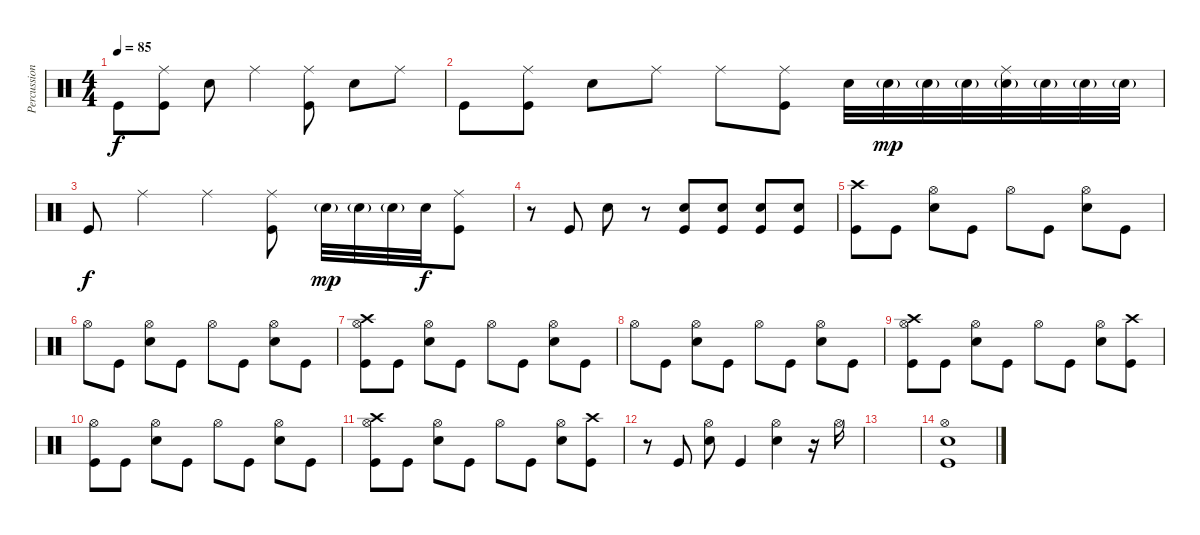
\track ("Percussions" "Percussion") {instrument percussion}
\staff {score}
\articulation defaults
\ts (4 4)
\tempo 85
\clef neutral
\ks c "Kick (hit)".8{dy f}
("Ride (middle)" "Kick (hit)").8 "Snare (hit) 2".8 "Ride (middle)".4 ("Ride (middle)" "Kick (hit)").8 "Snare (hit) 2".8 "Ride (middle)".8 |
"Kick (hit)".8 ("Ride (middle)" "Kick (hit)").8 "Snare (hit) 2".8 "Ride (middle)".8 "Ride (middle)".8 ("Ride (middle)" "Kick (hit)").8 "Snare (hit) 2".32 "Snare (hit) 2"{g}.32{dy mp} "Snare (hit) 2"{g}.32 "Snare (hit) 2"{g}.32 ("Ride (middle)" "Snare (hit) 2"{g}).32 "Snare (hit) 2"{g}.32 "Snare (hit) 2"{g}.32 "Snare (hit) 2"{g}.32 |
"Kick (hit)".8{dy f} "Ride (middle)".4 "Ride (middle)".4 ("Ride (middle)" "Kick (hit)").8 "Snare (hit) 2"{g}.32{dy mp} "Snare (hit) 2"{g}.32 "Snare (hit) 2"{g}.32 "Snare (hit) 2".32{dy f} ("Ride (middle)" "Kick (hit)").8 |
r.8 "Kick (hit)".8 "Snare (hit) 2".8 r.8{volume 5} ("Kick (hit)" "Snare (hit) 2").8{volume 15} ("Kick (hit)" "Snare (hit) 2").8 ("Kick (hit)" "Snare (hit) 2").8 ("Kick (hit)" "Snare (hit) 2").8 |
("Kick (hit)" "Crash high (hit)").8{volume 13} "Kick (hit)".8 ("Hi-Hat (open)" "Snare (hit) 2").8 "Kick (hit)".8 "Hi-Hat (open)".8 "Kick (hit)".8 ("Hi-Hat (open)" "Snare (hit) 2").8 "Kick (hit)".8 |
"Hi-Hat (open)".8 "Kick (hit)".8 ("Hi-Hat (open)" "Snare (hit) 2").8 "Kick (hit)".8 "Hi-Hat (open)".8 "Kick (hit)".8 ("Hi-Hat (open)" "Snare (hit) 2").8 "Kick (hit)".8 |
("Hi-Hat (open)" "Kick (hit)" "Crash high (hit)").8 "Kick (hit)".8 ("Hi-Hat (open)" "Snare (hit) 2").8 "Kick (hit)".8 "Hi-Hat (open)".8 "Kick (hit)".8 ("Hi-Hat (open)" "Snare (hit) 2").8 "Kick (hit)".8 |
"Hi-Hat (open)".8 "Kick (hit)".8 ("Hi-Hat (open)" "Snare (hit) 2").8 "Kick (hit)".8 "Hi-Hat (open)".8 "Kick (hit)".8 ("Hi-Hat (open)" "Snare (hit) 2").8 "Kick (hit)".8 |
("Hi-Hat (open)" "Kick (hit)" "Crash high (hit)").8 "Kick (hit)".8 ("Hi-Hat (open)" "Snare (hit) 2").8 "Kick (hit)".8 "Hi-Hat (open)".8 "Kick (hit)".8 ("Hi-Hat (open)" "Snare (hit) 2").8 ("Kick (hit)" "Crash high (hit)").8 |
("Hi-Hat (open)" "Kick (hit)").8 "Kick (hit)".8 ("Hi-Hat (open)" "Snare (hit) 2").8 "Kick (hit)".8 "Hi-Hat (open)".8 "Kick (hit)".8 ("Hi-Hat (open)" "Snare (hit) 2").8 "Kick (hit)".8 |
("Hi-Hat (open)" "Kick (hit)" "Crash high (hit)").8 "Kick (hit)".8 ("Hi-Hat (open)" "Snare (hit) 2").8 "Kick (hit)".8 "Hi-Hat (open)".8 "Kick (hit)".8 ("Hi-Hat (open)" "Snare (hit) 2").8 ("Kick (hit)" "Crash high (hit)").8 |
r.8 "Kick (hit)".8 ("Hi-Hat (open)" "Snare (hit) 2").8 "Kick (hit)".4 ("Hi-Hat (open)" "Snare (hit) 2").4 r.16 "Hi-Hat (open)".16 |
|
("Hi-Hat (open)" "Kick (hit)" "Snare (hit) 2").1{volume 8}
